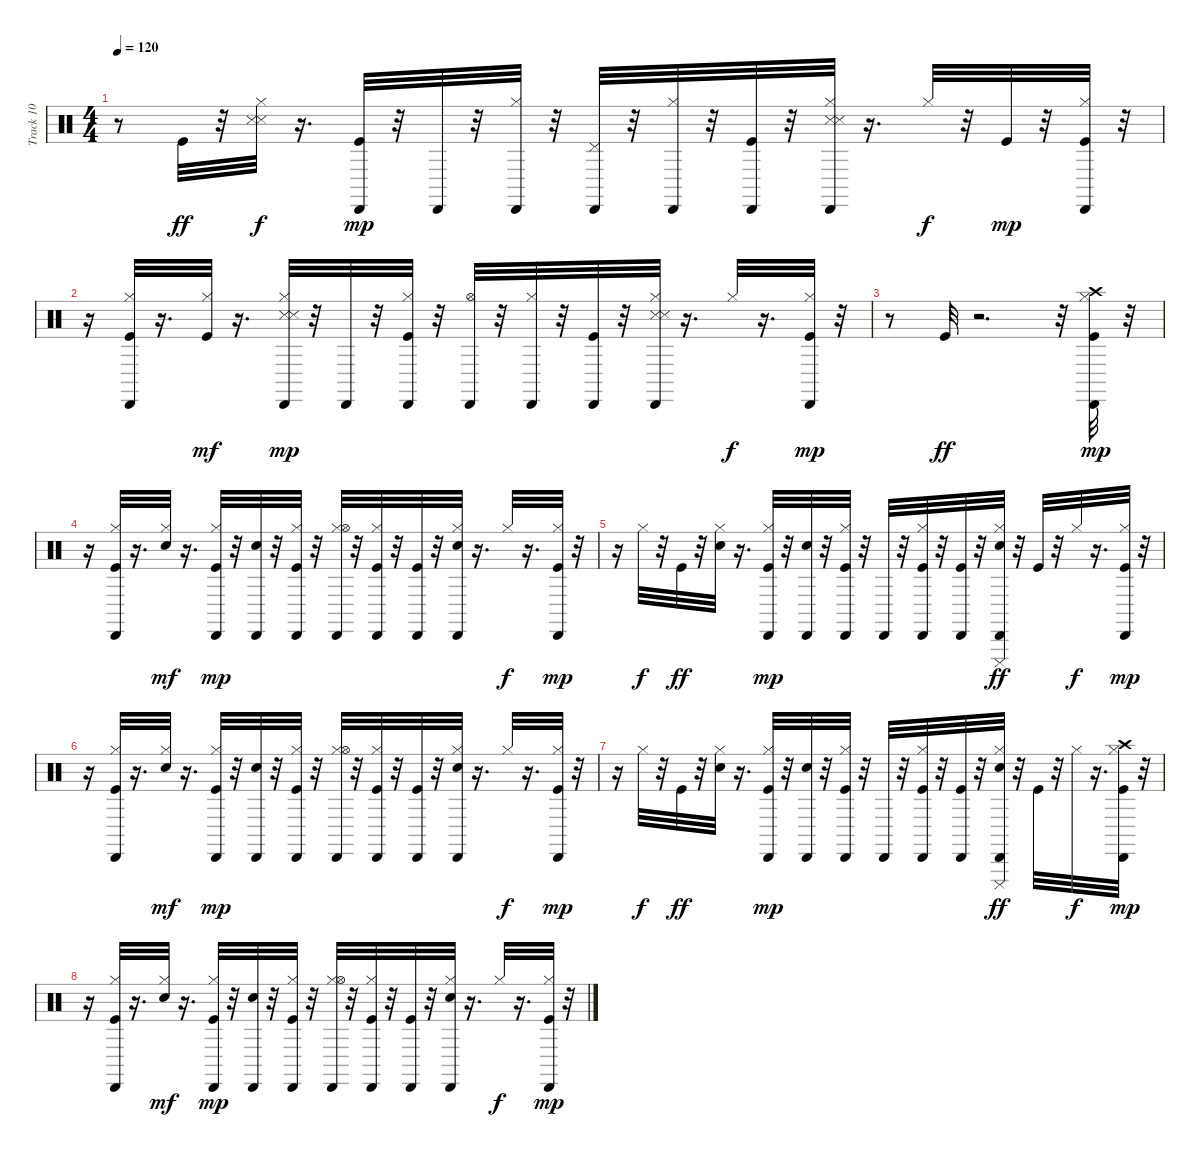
\track ("Track 10" "Track 10") {instrument percussion}
\staff {score}
\articulation defaults
\ts (4 4)
\tempo 120
\clef neutral
\ks c
r.8{dy mp} "Kick (hit)".32{dy ff} r.32 ("Metronome (hit)" "Snare (side stick) 3" "Hi-Hat (closed)").32{dy f} r.16{d} ("Kick (hit)" "Cabasa (hit)").32{dy mp} r.32 "Cabasa (hit)".32 r.32 ("Hi-Hat (closed)" "Cabasa (hit)").32 r.32 ("Pedal Hi-Hat (hit)" "Cabasa (hit)").32 r.32 ("Hi-Hat (closed)" "Cabasa (hit)").32 r.32 ("Kick (hit)" "Cabasa (hit)").32 r.32 ("Metronome (hit)" "Snare (side stick) 3" "Hi-Hat (closed)" "Cabasa (hit)").32 r.16{d} "Hi-Hat (closed)".32{dy f} r.32 "Kick (hit)".32{dy mp} r.32 ("Kick (hit)" "Hi-Hat (closed)" "Cabasa (hit)").32 r.32 |
r.16 ("Kick (hit)" "Hi-Hat (closed)" "Cabasa (hit)").32 r.16{d} ("Kick (hit)" "Hi-Hat (closed)").32{dy mf} r.16{d} ("Metronome (hit)" "Snare (side stick) 3" "Hi-Hat (closed)" "Cabasa (hit)").32{dy mp} r.32 "Cabasa (hit)".32 r.32 ("Kick (hit)" "Hi-Hat (closed)" "Cabasa (hit)").32 r.32 ("Hi-Hat (open)" "Cabasa (hit)").32 r.32 ("Hi-Hat (closed)" "Cabasa (hit)").32 r.32 ("Kick (hit)" "Cabasa (hit)").32 r.32 ("Metronome (hit)" "Snare (side stick) 3" "Hi-Hat (closed)" "Cabasa (hit)").32 r.16{d} "Hi-Hat (closed)".32{dy f} r.16{d} ("Kick (hit)" "Hi-Hat (closed)" "Cabasa (hit)").32{dy mp} r.32 |
r.8 "Kick (hit)".32{dy ff} r.2{d} r.32 ("Kick (hit)" "Hi-Hat (closed)" "Crash high (hit)" "Cabasa (hit)").32{dy mp} r.32 |
r.16 ("Kick (hit)" "Hi-Hat (closed)" "Cabasa (hit)").32 r.16{d} ("Electric Snare (hit)" "Hi-Hat (closed)").32{dy mf} r.16{d} ("Kick (hit)" "Hi-Hat (closed)" "Cabasa (hit)").32{dy mp} r.32 ("Electric Snare (hit)" "Cabasa (hit)").32 r.32 ("Kick (hit)" "Hi-Hat (closed)" "Cabasa (hit)").32 r.32 ("Hi-Hat (closed)" "Hi-Hat (open)" "Cabasa (hit)").32 r.32 ("Kick (hit)" "Hi-Hat (closed)" "Cabasa (hit)").32 r.32 ("Kick (hit)" "Cabasa (hit)").32 r.32 ("Electric Snare (hit)" "Hi-Hat (closed)" "Cabasa (hit)").32 r.16{d} "Hi-Hat (closed)".32{dy f} r.16{d} ("Kick (hit)" "Hi-Hat (closed)" "Cabasa (hit)").32{dy mp} r.32 |
r.16 "Hi-Hat (closed)".32{dy f} r.32 "Kick (hit)".32{dy ff} r.32 ("Electric Snare (hit)" "Hi-Hat (closed)").32 r.16{d} ("Kick (hit)" "Hi-Hat (closed)" "Cabasa (hit)").32{dy mp} r.32 ("Electric Snare (hit)" "Cabasa (hit)").32 r.32 ("Kick (hit)" "Hi-Hat (closed)" "Cabasa (hit)").32 r.32 "Cabasa (hit)".32 r.32 ("Kick (hit)" "Hi-Hat (closed)" "Cabasa (hit)").32 r.32 ("Kick (hit)" "Cabasa (hit)").32 r.32 ("Electric Snare (hit)" "Hi-Hat (closed)" "Cabasa (hit)" "Cuica (mute)").32{dy ff} r.32 "Kick (hit)".32 r.32 "Hi-Hat (closed)".32{dy f} r.16{d} ("Kick (hit)" "Hi-Hat (closed)" "Cabasa (hit)").32{dy mp} r.32 |
r.16 ("Kick (hit)" "Hi-Hat (closed)" "Cabasa (hit)").32 r.16{d} ("Electric Snare (hit)" "Hi-Hat (closed)").32{dy mf} r.16{d} ("Kick (hit)" "Hi-Hat (closed)" "Cabasa (hit)").32{dy mp} r.32 ("Electric Snare (hit)" "Cabasa (hit)").32 r.32 ("Kick (hit)" "Hi-Hat (closed)" "Cabasa (hit)").32 r.32 ("Hi-Hat (closed)" "Hi-Hat (open)" "Cabasa (hit)").32 r.32 ("Kick (hit)" "Hi-Hat (closed)" "Cabasa (hit)").32 r.32 ("Kick (hit)" "Cabasa (hit)").32 r.32 ("Electric Snare (hit)" "Hi-Hat (closed)" "Cabasa (hit)").32 r.16{d} "Hi-Hat (closed)".32{dy f} r.16{d} ("Kick (hit)" "Hi-Hat (closed)" "Cabasa (hit)").32{dy mp} r.32 |
r.16 "Hi-Hat (closed)".32{dy f} r.32 "Kick (hit)".32{dy ff} r.32 ("Electric Snare (hit)" "Hi-Hat (closed)").32 r.16{d} ("Kick (hit)" "Hi-Hat (closed)" "Cabasa (hit)").32{dy mp} r.32 ("Electric Snare (hit)" "Cabasa (hit)").32 r.32 ("Kick (hit)" "Hi-Hat (closed)" "Cabasa (hit)").32 r.32 "Cabasa (hit)".32 r.32 ("Kick (hit)" "Hi-Hat (closed)" "Cabasa (hit)").32 r.32 ("Kick (hit)" "Cabasa (hit)").32 r.32 ("Electric Snare (hit)" "Hi-Hat (closed)" "Cabasa (hit)" "Cuica (mute)").32{dy ff} r.32 "Kick (hit)".32 r.32 "Hi-Hat (closed)".32{dy f} r.16{d} ("Kick (hit)" "Hi-Hat (closed)" "Crash high (hit)" "Cabasa (hit)").32{dy mp} r.32 |
r.16 ("Kick (hit)" "Hi-Hat (closed)" "Cabasa (hit)").32 r.16{d} ("Electric Snare (hit)" "Hi-Hat (closed)").32{dy mf} r.16{d} ("Kick (hit)" "Hi-Hat (closed)" "Cabasa (hit)").32{dy mp} r.32 ("Electric Snare (hit)" "Cabasa (hit)").32 r.32 ("Kick (hit)" "Hi-Hat (closed)" "Cabasa (hit)").32 r.32 ("Hi-Hat (closed)" "Hi-Hat (open)" "Cabasa (hit)").32 r.32 ("Kick (hit)" "Hi-Hat (closed)" "Cabasa (hit)").32 r.32 ("Kick (hit)" "Cabasa (hit)").32 r.32 ("Electric Snare (hit)" "Hi-Hat (closed)" "Cabasa (hit)").32 r.16{d} "Hi-Hat (closed)".32{dy f} r.16{d} ("Kick (hit)" "Hi-Hat (closed)" "Cabasa (hit)").32{dy mp} r.32
